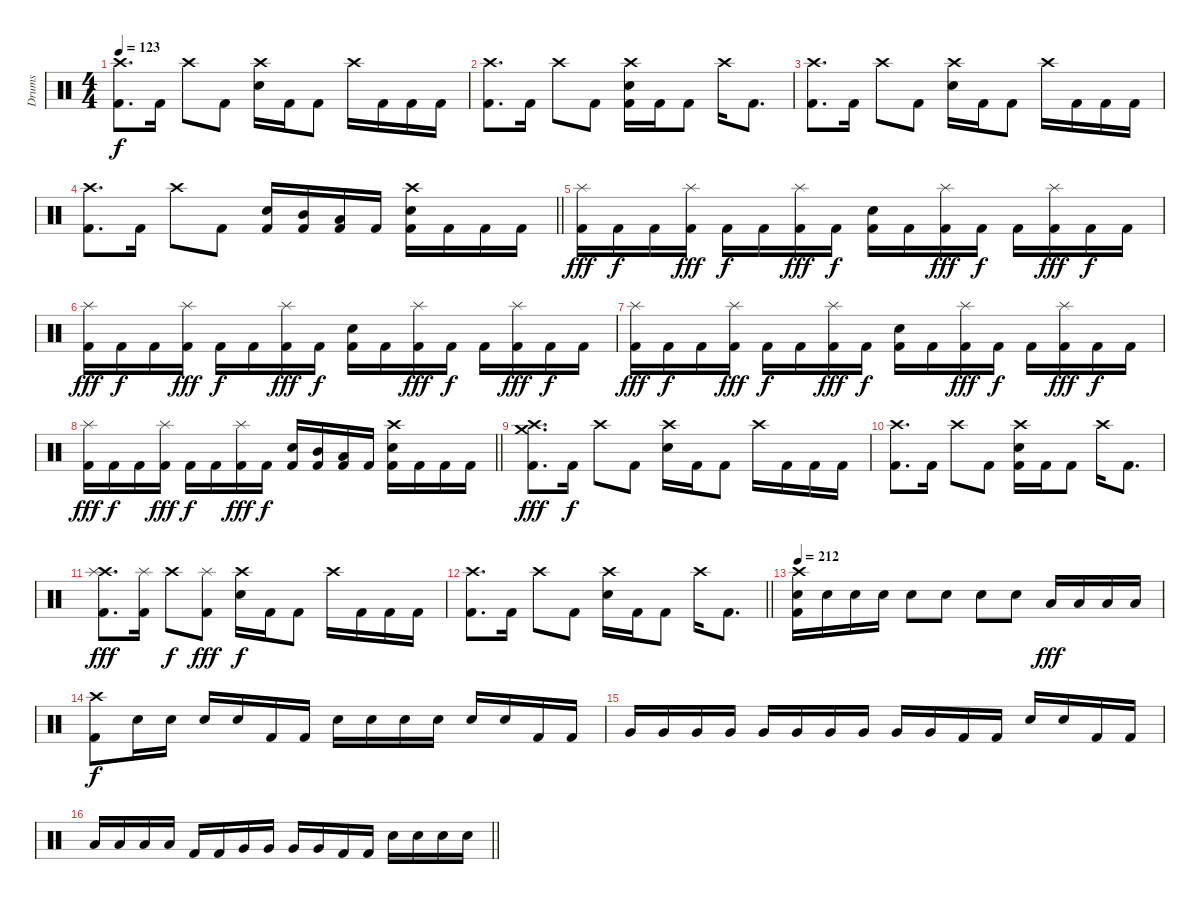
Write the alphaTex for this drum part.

\track ("Drums" "Drums") {instrument percussion}
\staff {score}
\articulation defaults
\ts (4 4)
\tempo 123
\clef neutral
\ks c
("Crash high (hit)" "Kick (hit) 2").8{d dy f} "Kick (hit) 2".16 "Crash high (hit)".8 "Kick (hit) 2".8 ("Crash high (hit)" "Electric Snare (hit)").16 "Kick (hit) 2".16 "Kick (hit) 2".8 "Crash high (hit)".16 "Kick (hit) 2".16 "Kick (hit) 2".16 "Kick (hit) 2".16 |
("Crash high (hit)" "Kick (hit) 2").8{d} "Kick (hit) 2".16 "Crash high (hit)".8 "Kick (hit) 2".8 ("Crash high (hit)" "Electric Snare (hit)" "Kick (hit) 2").16 "Kick (hit) 2".16 "Kick (hit) 2".8 "Crash high (hit)".16 "Kick (hit) 2".8{d} |
("Crash high (hit)" "Kick (hit) 2").8{d} "Kick (hit) 2".16 "Crash high (hit)".8 "Kick (hit) 2".8 ("Crash high (hit)" "Electric Snare (hit)").16 "Kick (hit) 2".16 "Kick (hit) 2".8 "Crash high (hit)".16 "Kick (hit) 2".16 "Kick (hit) 2".16 "Kick (hit) 2".16 |
\barLineRight lightlight
("Crash high (hit)" "Kick (hit) 2").8{d} "Kick (hit) 2".16 "Crash high (hit)".8 "Kick (hit) 2".8 ("Electric Snare (hit)" "Kick (hit) 2").16 ("Mid Tom (hit)" "Kick (hit) 2").16 ("Low Tom (hit)" "Kick (hit) 2").16 "Kick (hit) 2".16 ("Crash high (hit)" "Electric Snare (hit)" "Kick (hit) 2").16 "Kick (hit) 2".16 "Kick (hit) 2".16 "Kick (hit) 2".16 |
("Splash (hit)" "Kick (hit) 2").16{dy fff} "Kick (hit) 2".16{dy f} "Kick (hit) 2".16 ("Splash (hit)" "Kick (hit) 2").16{dy fff} "Kick (hit) 2".16{dy f} "Kick (hit) 2".16 ("Splash (hit)" "Kick (hit) 2").16{dy fff} "Kick (hit) 2".16{dy f} ("Electric Snare (hit)" "Kick (hit) 2").16 "Kick (hit) 2".16 ("Splash (hit)" "Kick (hit) 2").16{dy fff} "Kick (hit) 2".16{dy f} "Kick (hit) 2".16 ("Splash (hit)" "Kick (hit) 2").16{dy fff} "Kick (hit) 2".16{dy f} "Kick (hit) 2".16 |
("Splash (hit)" "Kick (hit) 2").16{dy fff} "Kick (hit) 2".16{dy f} "Kick (hit) 2".16 ("Splash (hit)" "Kick (hit) 2").16{dy fff} "Kick (hit) 2".16{dy f} "Kick (hit) 2".16 ("Splash (hit)" "Kick (hit) 2").16{dy fff} "Kick (hit) 2".16{dy f} ("Electric Snare (hit)" "Kick (hit) 2").16 "Kick (hit) 2".16 ("Splash (hit)" "Kick (hit) 2").16{dy fff} "Kick (hit) 2".16{dy f} "Kick (hit) 2".16 ("Splash (hit)" "Kick (hit) 2").16{dy fff} "Kick (hit) 2".16{dy f} "Kick (hit) 2".16 |
("Splash (hit)" "Kick (hit) 2").16{dy fff} "Kick (hit) 2".16{dy f} "Kick (hit) 2".16 ("Splash (hit)" "Kick (hit) 2").16{dy fff} "Kick (hit) 2".16{dy f} "Kick (hit) 2".16 ("Splash (hit)" "Kick (hit) 2").16{dy fff} "Kick (hit) 2".16{dy f} ("Electric Snare (hit)" "Kick (hit) 2").16 "Kick (hit) 2".16 ("Splash (hit)" "Kick (hit) 2").16{dy fff} "Kick (hit) 2".16{dy f} "Kick (hit) 2".16 ("Splash (hit)" "Kick (hit) 2").16{dy fff} "Kick (hit) 2".16{dy f} "Kick (hit) 2".16 |
\barLineRight lightlight
("Splash (hit)" "Kick (hit) 2").16{dy fff} "Kick (hit) 2".16{dy f} "Kick (hit) 2".16 ("Splash (hit)" "Kick (hit) 2").16{dy fff} "Kick (hit) 2".16{dy f} "Kick (hit) 2".16 ("Splash (hit)" "Kick (hit) 2").16{dy fff} "Kick (hit) 2".16{dy f} ("Electric Snare (hit)" "Kick (hit) 2").16 ("Mid Tom (hit)" "Kick (hit) 2").16 ("Low Tom (hit)" "Kick (hit) 2").16 "Kick (hit) 2".16 ("Crash high (hit)" "Electric Snare (hit)" "Kick (hit) 2").16 "Kick (hit) 2".16 "Kick (hit) 2".16 "Kick (hit) 2".16 |
("Crash high (hit)" "Crash medium (hit)" "Kick (hit) 2").8{d dy fff} "Kick (hit) 2".16{dy f} "Crash high (hit)".8 "Kick (hit) 2".8 ("Crash high (hit)" "Electric Snare (hit)").16 "Kick (hit) 2".16 "Kick (hit) 2".8 "Crash high (hit)".16 "Kick (hit) 2".16 "Kick (hit) 2".16 "Kick (hit) 2".16 |
("Crash high (hit)" "Kick (hit) 2").8{d} "Kick (hit) 2".16 "Crash high (hit)".8 "Kick (hit) 2".8 ("Crash high (hit)" "Electric Snare (hit)" "Kick (hit) 2").16 "Kick (hit) 2".16 "Kick (hit) 2".8 "Crash high (hit)".16 "Kick (hit) 2".8{d} |
("Crash high (hit)" "Splash (hit)" "Kick (hit) 2").8{d dy fff} ("Splash (hit)" "Kick (hit) 2").16 "Crash high (hit)".8{dy f} ("Splash (hit)" "Kick (hit) 2").8{dy fff} ("Crash high (hit)" "Electric Snare (hit)").16{dy f} "Kick (hit) 2".16 "Kick (hit) 2".8 "Crash high (hit)".16 "Kick (hit) 2".16 "Kick (hit) 2".16 "Kick (hit) 2".16 |
\barLineRight lightlight
("Crash high (hit)" "Kick (hit) 2").8{d} "Kick (hit) 2".16 "Crash high (hit)".8 "Kick (hit) 2".8 ("Crash high (hit)" "Electric Snare (hit)").16 "Kick (hit) 2".16 "Kick (hit) 2".8 "Crash high (hit)".16 "Kick (hit) 2".8{d} |
\tempo 212
("Crash high (hit)" "Electric Snare (hit)" "Kick (hit) 2").16 "Electric Snare (hit)".16 "Electric Snare (hit)".16 "Electric Snare (hit)".16 "Electric Snare (hit)".8 "Electric Snare (hit)".8 "Electric Snare (hit)".8 "Electric Snare (hit)".8 "Low Tom (hit)".16{dy fff} "Low Tom (hit)".16 "Low Tom (hit)".16 "Low Tom (hit)".16 |
("Crash high (hit)" "Kick (hit) 2").8{dy f} "Electric Snare (hit)".16 "Electric Snare (hit)".16 "Electric Snare (hit)".16 "Electric Snare (hit)".16 "Kick (hit) 2".16 "Kick (hit) 2".16 "Electric Snare (hit)".16 "Electric Snare (hit)".16 "Electric Snare (hit)".16 "Electric Snare (hit)".16 "Electric Snare (hit)".16 "Electric Snare (hit)".16 "Kick (hit) 2".16 "Kick (hit) 2".16 |
"Very Low Tom (hit)".16 "Very Low Tom (hit)".16 "Very Low Tom (hit)".16 "Very Low Tom (hit)".16 "Very Low Tom (hit)".16 "Very Low Tom (hit)".16 "Very Low Tom (hit)".16 "Very Low Tom (hit)".16 "Very Low Tom (hit)".16 "Very Low Tom (hit)".16 "Kick (hit) 2".16 "Kick (hit) 2".16 "Electric Snare (hit)".16 "Electric Snare (hit)".16 "Kick (hit) 2".16 "Kick (hit) 2".16 |
\barLineRight lightlight "Low Tom (hit)".16 "Low Tom (hit)".16 "Low Tom (hit)".16 "Low Tom (hit)".16 "Kick (hit) 2".16 "Kick (hit) 2".16 "Very Low Tom (hit)".16 "Very Low Tom (hit)".16 "Very Low Tom (hit)".16 "Very Low Tom (hit)".16 "Kick (hit) 2".16 "Kick (hit) 2".16 "Electric Snare (hit)".16 "Electric Snare (hit)".16 "Electric Snare (hit)".16 "Electric Snare (hit)".16
